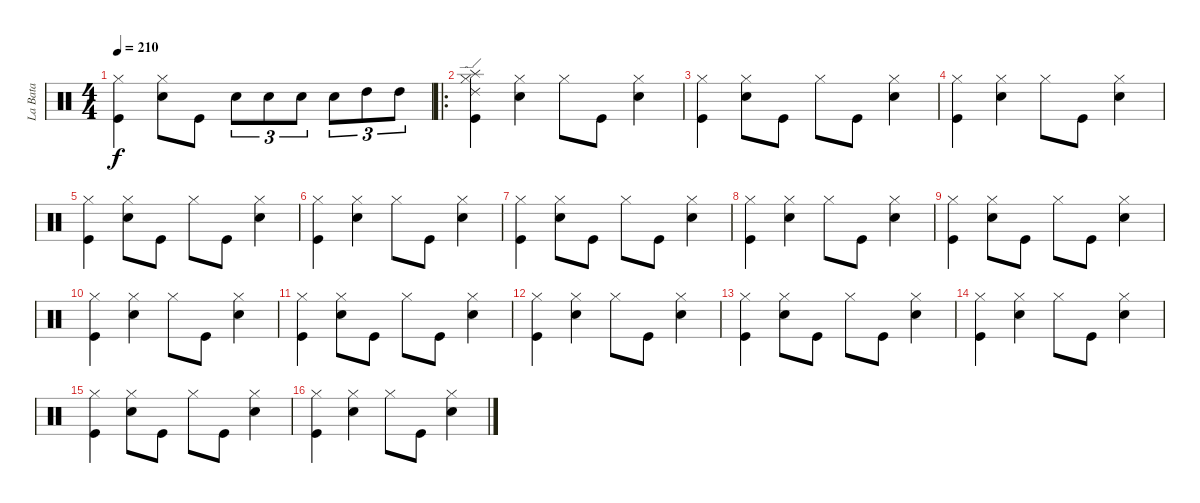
\track ("La Bata" "La Bata") {instrument percussion}
\staff {score}
\articulation defaults
\ts (4 4)
\tempo 210
\clef neutral
\ks c
("Hi-Hat (closed)" "Kick (hit)").4{dy f} ("Snare (hit) 2" "Hi-Hat (closed)").8 "Kick (hit)".8 "Snare (hit) 2".8{tu (3 2)} "Snare (hit) 2".8{tu (3 2)} "Snare (hit) 2".8{tu (3 2)} "Snare (hit) 2".8{tu (3 2)} "High Tom (hit)".8{tu (3 2)} "High Tom (hit)".8{tu (3 2)} |
\ro
("Kick (hit)" "Hi-Hat (closed)" "Ride (edge) 2" "Splash (hit)").4 ("Snare (hit) 2" "Hi-Hat (closed)").4 "Hi-Hat (closed)".8 "Kick (hit)".8 ("Snare (hit) 2" "Hi-Hat (closed)").4 |
("Hi-Hat (closed)" "Kick (hit)").4 ("Snare (hit) 2" "Hi-Hat (closed)").8 "Kick (hit)".8 "Hi-Hat (closed)".8 "Kick (hit)".8 ("Hi-Hat (closed)" "Snare (hit) 2").4 |
("Kick (hit)" "Hi-Hat (closed)").4 ("Snare (hit) 2" "Hi-Hat (closed)").4 "Hi-Hat (closed)".8 "Kick (hit)".8 ("Snare (hit) 2" "Hi-Hat (closed)").4 |
("Hi-Hat (closed)" "Kick (hit)").4 ("Snare (hit) 2" "Hi-Hat (closed)").8 "Kick (hit)".8 "Hi-Hat (closed)".8 "Kick (hit)".8 ("Hi-Hat (closed)" "Snare (hit) 2").4 |
("Kick (hit)" "Hi-Hat (closed)").4 ("Snare (hit) 2" "Hi-Hat (closed)").4 "Hi-Hat (closed)".8 "Kick (hit)".8 ("Snare (hit) 2" "Hi-Hat (closed)").4 |
("Hi-Hat (closed)" "Kick (hit)").4 ("Snare (hit) 2" "Hi-Hat (closed)").8 "Kick (hit)".8 "Hi-Hat (closed)".8 "Kick (hit)".8 ("Hi-Hat (closed)" "Snare (hit) 2").4 |
("Kick (hit)" "Hi-Hat (closed)").4 ("Snare (hit) 2" "Hi-Hat (closed)").4 "Hi-Hat (closed)".8 "Kick (hit)".8 ("Snare (hit) 2" "Hi-Hat (closed)").4 |
("Hi-Hat (closed)" "Kick (hit)").4 ("Snare (hit) 2" "Hi-Hat (closed)").8 "Kick (hit)".8 "Hi-Hat (closed)".8 "Kick (hit)".8 ("Hi-Hat (closed)" "Snare (hit) 2").4 |
("Kick (hit)" "Hi-Hat (closed)").4 ("Snare (hit) 2" "Hi-Hat (closed)").4 "Hi-Hat (closed)".8 "Kick (hit)".8 ("Snare (hit) 2" "Hi-Hat (closed)").4 |
("Hi-Hat (closed)" "Kick (hit)").4 ("Snare (hit) 2" "Hi-Hat (closed)").8 "Kick (hit)".8 "Hi-Hat (closed)".8 "Kick (hit)".8 ("Hi-Hat (closed)" "Snare (hit) 2").4 |
("Kick (hit)" "Hi-Hat (closed)").4 ("Snare (hit) 2" "Hi-Hat (closed)").4 "Hi-Hat (closed)".8 "Kick (hit)".8 ("Snare (hit) 2" "Hi-Hat (closed)").4 |
("Hi-Hat (closed)" "Kick (hit)").4 ("Snare (hit) 2" "Hi-Hat (closed)").8 "Kick (hit)".8 "Hi-Hat (closed)".8 "Kick (hit)".8 ("Hi-Hat (closed)" "Snare (hit) 2").4 |
("Kick (hit)" "Hi-Hat (closed)").4 ("Snare (hit) 2" "Hi-Hat (closed)").4 "Hi-Hat (closed)".8 "Kick (hit)".8 ("Snare (hit) 2" "Hi-Hat (closed)").4 |
("Hi-Hat (closed)" "Kick (hit)").4 ("Snare (hit) 2" "Hi-Hat (closed)").8 "Kick (hit)".8 "Hi-Hat (closed)".8 "Kick (hit)".8 ("Hi-Hat (closed)" "Snare (hit) 2").4 |
("Kick (hit)" "Hi-Hat (closed)").4 ("Snare (hit) 2" "Hi-Hat (closed)").4 "Hi-Hat (closed)".8 "Kick (hit)".8 ("Snare (hit) 2" "Hi-Hat (closed)").4
